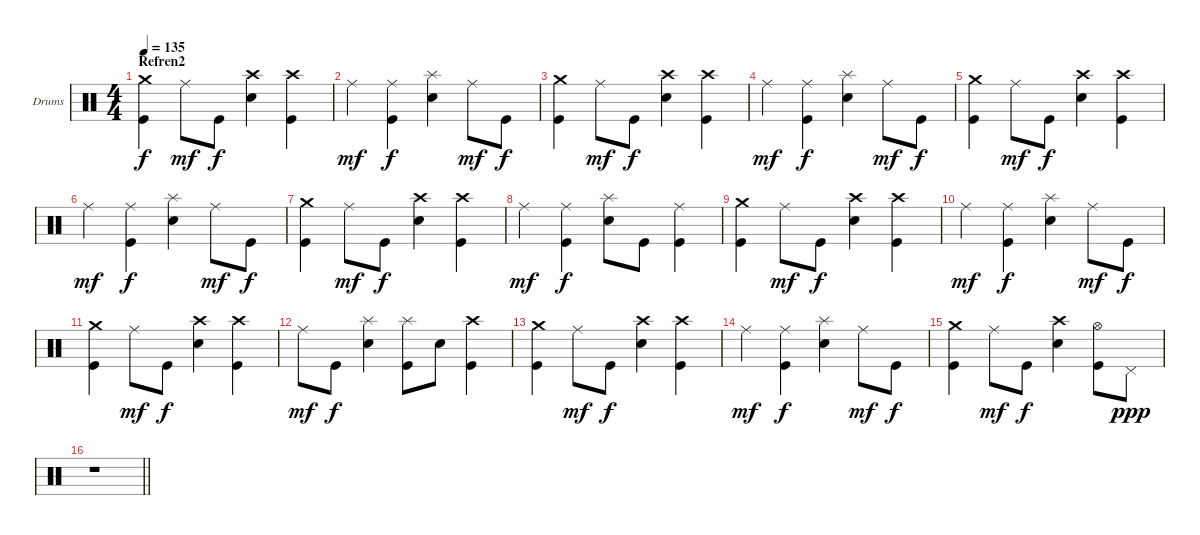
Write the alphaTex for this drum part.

\bracketExtendMode groupsimilarinstruments
\firstSystemTrackNameOrientation horizontal
\otherSystemsTrackNameOrientation horizontal
\track ("Drumkit" "Drums") {instrument percussion}
\staff {score}
\articulation defaults
\ts (4 4)
\section ("" "Refren2")
\tempo 135
\clef neutral
\ks c
("Kick (hit)" "Crash medium (hit)").4{dy f} "Ride (middle)".8{dy mf} "Kick (hit)".8{dy f} ("Snare (hit) 2" "Crash high (hit)").4 ("Kick (hit)" "Crash high (hit)").4 |
"Ride (middle)".4{dy mf} ("Kick (hit)" "Ride (middle)").4{dy f} ("Snare (hit) 2" "Splash (hit)").4 "Ride (middle)".8{dy mf} "Kick (hit)".8{dy f} |
("Kick (hit)" "Crash medium (hit)").4 "Ride (middle)".8{dy mf} "Kick (hit)".8{dy f} ("Snare (hit) 2" "Crash high (hit)").4 ("Kick (hit)" "Crash high (hit)").4 |
"Ride (middle)".4{dy mf} ("Kick (hit)" "Ride (middle)").4{dy f} ("Snare (hit) 2" "Splash (hit)").4 "Ride (middle)".8{dy mf} "Kick (hit)".8{dy f} |
("Kick (hit)" "Crash medium (hit)").4 "Ride (middle)".8{dy mf} "Kick (hit)".8{dy f} ("Snare (hit) 2" "Crash high (hit)").4 ("Kick (hit)" "Crash high (hit)").4 |
"Ride (middle)".4{dy mf} ("Kick (hit)" "Ride (middle)").4{dy f} ("Snare (hit) 2" "Splash (hit)").4 "Ride (middle)".8{dy mf} "Kick (hit)".8{dy f} |
("Kick (hit)" "Crash medium (hit)").4 "Ride (middle)".8{dy mf} "Kick (hit)".8{dy f} ("Snare (hit) 2" "Crash high (hit)").4 ("Kick (hit)" "Crash high (hit)").4 |
"Ride (middle)".4{dy mf} ("Kick (hit)" "Ride (middle)").4{dy f} ("Snare (hit) 2" "Splash (hit)").8 "Kick (hit)".8 ("Kick (hit)" "Ride (middle)").4 |
("Kick (hit)" "Crash medium (hit)").4 "Ride (middle)".8{dy mf} "Kick (hit)".8{dy f} ("Snare (hit) 2" "Crash high (hit)").4 ("Kick (hit)" "Crash high (hit)").4 |
"Ride (middle)".4{dy mf} ("Kick (hit)" "Ride (middle)").4{dy f} ("Snare (hit) 2" "Splash (hit)").4 "Ride (middle)".8{dy mf} "Kick (hit)".8{dy f} |
("Kick (hit)" "Crash medium (hit)").4 "Ride (middle)".8{dy mf} "Kick (hit)".8{dy f} ("Snare (hit) 2" "Crash high (hit)").4 ("Kick (hit)" "Crash high (hit)").4 |
"Ride (middle)".8{dy mf} "Kick (hit)".8{dy f} ("Snare (hit) 2" "Splash (hit)").4 ("Kick (hit)" "Splash (hit)").8 "Snare (hit) 2".8 ("Kick (hit)" "Crash high (hit)").4 |
("Kick (hit)" "Crash medium (hit)").4 "Ride (middle)".8{dy mf} "Kick (hit)".8{dy f} ("Snare (hit) 2" "Crash high (hit)").4 ("Kick (hit)" "Crash high (hit)").4 |
"Ride (middle)".4{dy mf} ("Kick (hit)" "Ride (middle)").4{dy f} ("Snare (hit) 2" "Splash (hit)").4 "Ride (middle)".8{dy mf} "Kick (hit)".8{dy f} |
("Kick (hit)" "Crash medium (hit)").4 "Ride (middle)".8{dy mf} "Kick (hit)".8{dy f} ("Snare (hit) 2" "Crash high (hit)").4 ("Kick (hit)" "Hi-Hat (open)").8 "Pedal Hi-Hat (hit)".8{dy ppp} |
\barLineRight lightlight
r.1
